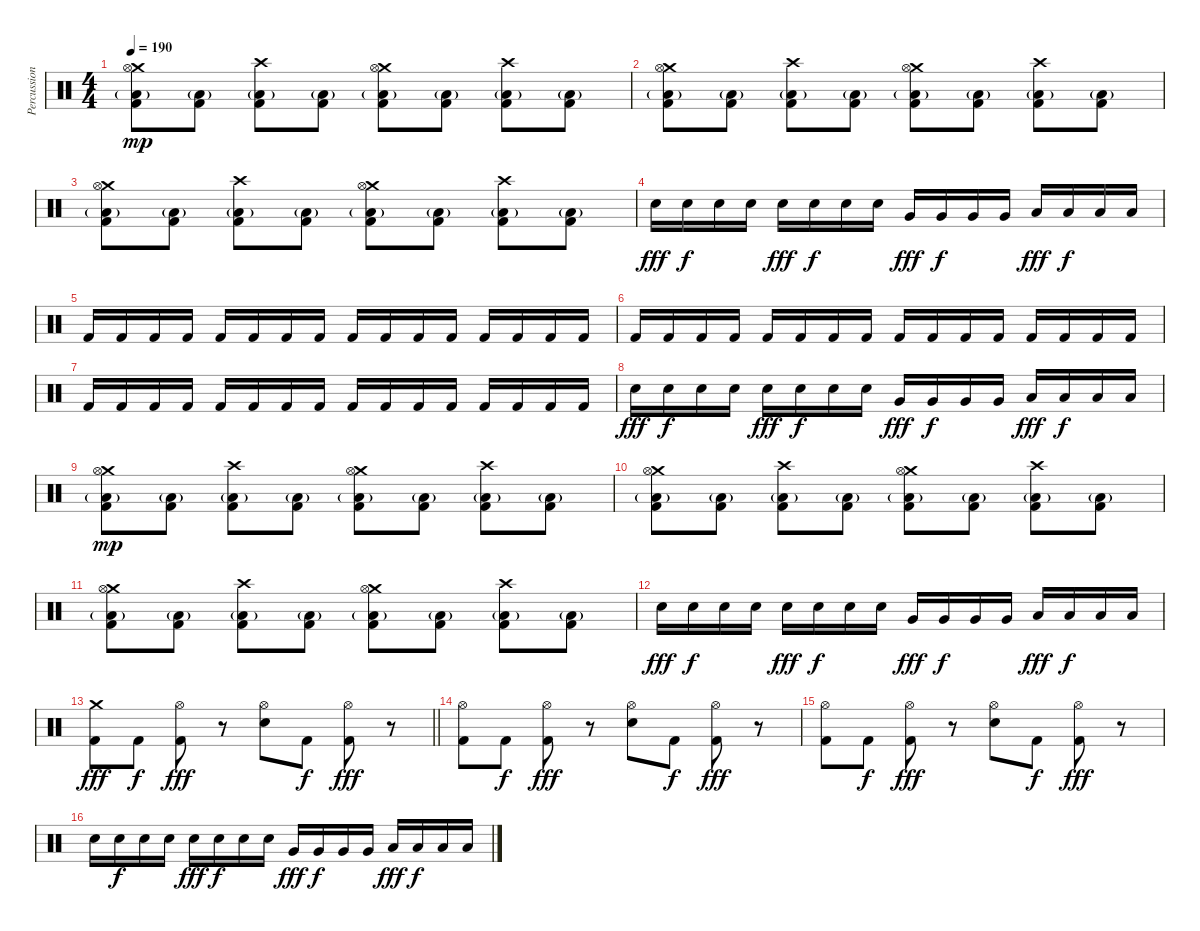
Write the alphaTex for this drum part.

\track ("Percussions" "Percussion") {instrument percussion}
\staff {score}
\articulation defaults
\ts (4 4)
\tempo 190
\clef neutral
\ks c
("Crash medium (hit)" "Kick (hit) 2" "Hi-Hat (open)" "Low Floor Tom (hit)"{g}).8{dy mp} ("Kick (hit) 2" "Low Floor Tom (hit)"{g}).8 ("Crash high (hit)" "Kick (hit) 2" "Low Floor Tom (hit)"{g}).8 ("Kick (hit) 2" "Low Floor Tom (hit)"{g}).8 ("Crash medium (hit)" "Kick (hit) 2" "Hi-Hat (open)" "Low Floor Tom (hit)"{g}).8 ("Kick (hit) 2" "Low Floor Tom (hit)"{g}).8 ("Crash high (hit)" "Kick (hit) 2" "Low Floor Tom (hit)"{g}).8 ("Kick (hit) 2" "Low Floor Tom (hit)"{g}).8 |
("Crash medium (hit)" "Kick (hit) 2" "Hi-Hat (open)" "Low Floor Tom (hit)"{g}).8 ("Kick (hit) 2" "Low Floor Tom (hit)"{g}).8 ("Crash high (hit)" "Kick (hit) 2" "Low Floor Tom (hit)"{g}).8 ("Kick (hit) 2" "Low Floor Tom (hit)"{g}).8 ("Crash medium (hit)" "Kick (hit) 2" "Hi-Hat (open)" "Low Floor Tom (hit)"{g}).8 ("Kick (hit) 2" "Low Floor Tom (hit)"{g}).8 ("Crash high (hit)" "Kick (hit) 2" "Low Floor Tom (hit)"{g}).8 ("Kick (hit) 2" "Low Floor Tom (hit)"{g}).8 |
("Crash medium (hit)" "Kick (hit) 2" "Hi-Hat (open)" "Low Floor Tom (hit)"{g}).8 ("Kick (hit) 2" "Low Floor Tom (hit)"{g}).8 ("Crash high (hit)" "Kick (hit) 2" "Low Floor Tom (hit)"{g}).8 ("Kick (hit) 2" "Low Floor Tom (hit)"{g}).8 ("Crash medium (hit)" "Kick (hit) 2" "Hi-Hat (open)" "Low Floor Tom (hit)"{g}).8 ("Kick (hit) 2" "Low Floor Tom (hit)"{g}).8 ("Crash high (hit)" "Kick (hit) 2" "Low Floor Tom (hit)"{g}).8 ("Kick (hit) 2" "Low Floor Tom (hit)"{g}).8 |
"Snare (hit) 2".16{dy fff} "Snare (hit) 2".16{dy f} "Snare (hit) 2".16 "Snare (hit) 2".16 "Snare (hit) 2".16{dy fff} "Snare (hit) 2".16{dy f} "Snare (hit) 2".16 "Snare (hit) 2".16 "Very Low Tom (hit)".16{dy fff} "Very Low Tom (hit)".16{dy f} "Very Low Tom (hit)".16 "Very Low Tom (hit)".16 "Low Floor Tom (hit)".16{dy fff} "Low Floor Tom (hit)".16{dy f} "Low Floor Tom (hit)".16 "Low Floor Tom (hit)".16 |
"Kick (hit) 2".16 "Kick (hit) 2".16 "Kick (hit) 2".16 "Kick (hit) 2".16 "Kick (hit) 2".16 "Kick (hit) 2".16 "Kick (hit) 2".16 "Kick (hit) 2".16 "Kick (hit) 2".16 "Kick (hit) 2".16 "Kick (hit) 2".16 "Kick (hit) 2".16 "Kick (hit) 2".16 "Kick (hit) 2".16 "Kick (hit) 2".16 "Kick (hit) 2".16 |
"Kick (hit) 2".16 "Kick (hit) 2".16 "Kick (hit) 2".16 "Kick (hit) 2".16 "Kick (hit) 2".16 "Kick (hit) 2".16 "Kick (hit) 2".16 "Kick (hit) 2".16 "Kick (hit) 2".16 "Kick (hit) 2".16 "Kick (hit) 2".16 "Kick (hit) 2".16 "Kick (hit) 2".16 "Kick (hit) 2".16 "Kick (hit) 2".16 "Kick (hit) 2".16 |
"Kick (hit) 2".16 "Kick (hit) 2".16 "Kick (hit) 2".16 "Kick (hit) 2".16 "Kick (hit) 2".16 "Kick (hit) 2".16 "Kick (hit) 2".16 "Kick (hit) 2".16 "Kick (hit) 2".16 "Kick (hit) 2".16 "Kick (hit) 2".16 "Kick (hit) 2".16 "Kick (hit) 2".16 "Kick (hit) 2".16 "Kick (hit) 2".16 "Kick (hit) 2".16 |
"Snare (hit) 2".16{dy fff} "Snare (hit) 2".16{dy f} "Snare (hit) 2".16 "Snare (hit) 2".16 "Snare (hit) 2".16{dy fff} "Snare (hit) 2".16{dy f} "Snare (hit) 2".16 "Snare (hit) 2".16 "Very Low Tom (hit)".16{dy fff} "Very Low Tom (hit)".16{dy f} "Very Low Tom (hit)".16 "Very Low Tom (hit)".16 "Low Floor Tom (hit)".16{dy fff} "Low Floor Tom (hit)".16{dy f} "Low Floor Tom (hit)".16 "Low Floor Tom (hit)".16 |
("Crash medium (hit)" "Kick (hit) 2" "Hi-Hat (open)" "Low Floor Tom (hit)"{g}).8{dy mp} ("Kick (hit) 2" "Low Floor Tom (hit)"{g}).8 ("Crash high (hit)" "Kick (hit) 2" "Low Floor Tom (hit)"{g}).8 ("Kick (hit) 2" "Low Floor Tom (hit)"{g}).8 ("Crash medium (hit)" "Kick (hit) 2" "Hi-Hat (open)" "Low Floor Tom (hit)"{g}).8 ("Kick (hit) 2" "Low Floor Tom (hit)"{g}).8 ("Crash high (hit)" "Kick (hit) 2" "Low Floor Tom (hit)"{g}).8 ("Kick (hit) 2" "Low Floor Tom (hit)"{g}).8 |
("Crash medium (hit)" "Kick (hit) 2" "Hi-Hat (open)" "Low Floor Tom (hit)"{g}).8 ("Kick (hit) 2" "Low Floor Tom (hit)"{g}).8 ("Crash high (hit)" "Kick (hit) 2" "Low Floor Tom (hit)"{g}).8 ("Kick (hit) 2" "Low Floor Tom (hit)"{g}).8 ("Crash medium (hit)" "Kick (hit) 2" "Hi-Hat (open)" "Low Floor Tom (hit)"{g}).8 ("Kick (hit) 2" "Low Floor Tom (hit)"{g}).8 ("Crash high (hit)" "Kick (hit) 2" "Low Floor Tom (hit)"{g}).8 ("Kick (hit) 2" "Low Floor Tom (hit)"{g}).8 |
("Crash medium (hit)" "Kick (hit) 2" "Hi-Hat (open)" "Low Floor Tom (hit)"{g}).8 ("Kick (hit) 2" "Low Floor Tom (hit)"{g}).8 ("Crash high (hit)" "Kick (hit) 2" "Low Floor Tom (hit)"{g}).8 ("Kick (hit) 2" "Low Floor Tom (hit)"{g}).8 ("Crash medium (hit)" "Kick (hit) 2" "Hi-Hat (open)" "Low Floor Tom (hit)"{g}).8 ("Kick (hit) 2" "Low Floor Tom (hit)"{g}).8 ("Crash high (hit)" "Kick (hit) 2" "Low Floor Tom (hit)"{g}).8 ("Kick (hit) 2" "Low Floor Tom (hit)"{g}).8 |
"Snare (hit) 2".16{dy fff} "Snare (hit) 2".16{dy f} "Snare (hit) 2".16 "Snare (hit) 2".16 "Snare (hit) 2".16{dy fff} "Snare (hit) 2".16{dy f} "Snare (hit) 2".16 "Snare (hit) 2".16 "Very Low Tom (hit)".16{dy fff} "Very Low Tom (hit)".16{dy f} "Very Low Tom (hit)".16 "Very Low Tom (hit)".16 "Low Floor Tom (hit)".16{dy fff} "Low Floor Tom (hit)".16{dy f} "Low Floor Tom (hit)".16 "Low Floor Tom (hit)".16 |
\barLineRight lightlight
("Crash medium (hit)" "Kick (hit) 2").8{dy fff} "Kick (hit) 2".8{dy f} ("Hi-Hat (open)" "Kick (hit) 2").8{dy fff} r.8 ("Hi-Hat (open)" "Snare (hit) 2").8 "Kick (hit) 2".8{dy f} ("Hi-Hat (open)" "Kick (hit) 2").8{dy fff} r.8 |
("Hi-Hat (open)" "Kick (hit) 2").8 "Kick (hit) 2".8{dy f} ("Hi-Hat (open)" "Kick (hit) 2").8{dy fff} r.8 ("Hi-Hat (open)" "Snare (hit) 2").8 "Kick (hit) 2".8{dy f} ("Hi-Hat (open)" "Kick (hit) 2").8{dy fff} r.8 |
("Hi-Hat (open)" "Kick (hit) 2").8 "Kick (hit) 2".8{dy f} ("Hi-Hat (open)" "Kick (hit) 2").8{dy fff} r.8 ("Hi-Hat (open)" "Snare (hit) 2").8 "Kick (hit) 2".8{dy f} ("Hi-Hat (open)" "Kick (hit) 2").8{dy fff} r.8 |
"Snare (hit) 2".16 "Snare (hit) 2".16{dy f} "Snare (hit) 2".16 "Snare (hit) 2".16 "Snare (hit) 2".16{dy fff} "Snare (hit) 2".16{dy f} "Snare (hit) 2".16 "Snare (hit) 2".16 "Very Low Tom (hit)".16{dy fff} "Very Low Tom (hit)".16{dy f} "Very Low Tom (hit)".16 "Very Low Tom (hit)".16 "Low Floor Tom (hit)".16{dy fff} "Low Floor Tom (hit)".16{dy f} "Low Floor Tom (hit)".16 "Low Floor Tom (hit)".16
